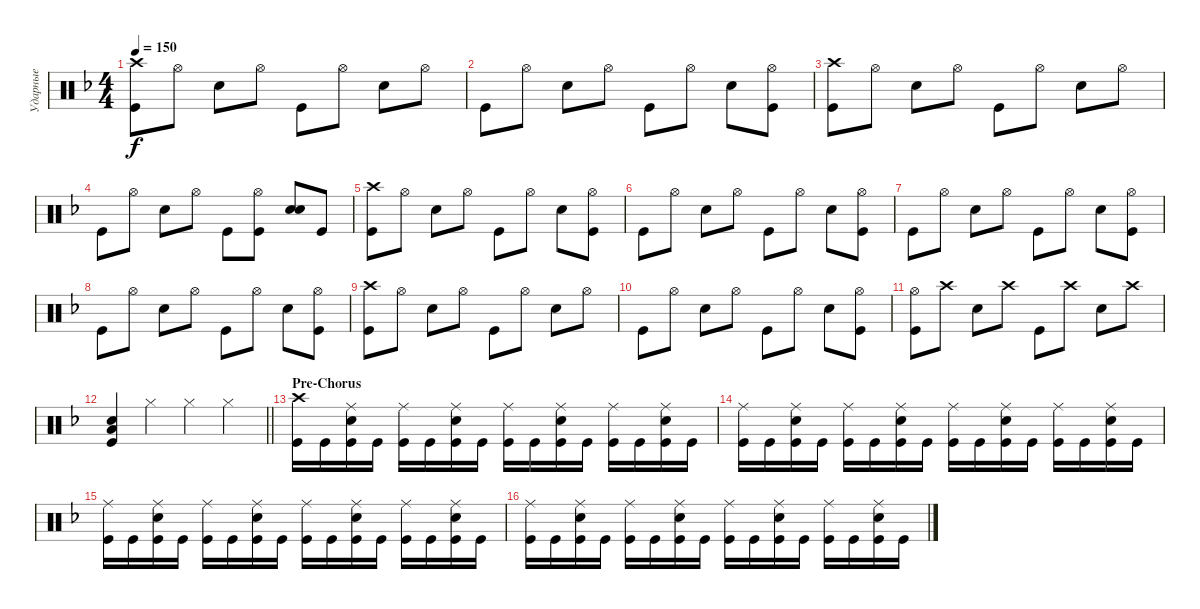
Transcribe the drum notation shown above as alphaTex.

\track ("Ударные" "Ударные") {instrument percussion}
\staff {score}
\articulation defaults
\ts (4 4)
\tempo 150
\clef neutral
\ks dminor
("Kick (hit)" "Crash high (hit)").8{dy f} "Hi-Hat (open)".8 "Snare (hit) 2".8 "Hi-Hat (open)".8 "Kick (hit)".8 "Hi-Hat (open)".8 "Snare (hit) 2".8 "Hi-Hat (open)".8 |
"Kick (hit)".8 "Hi-Hat (open)".8 "Snare (hit) 2".8 "Hi-Hat (open)".8 "Kick (hit)".8 "Hi-Hat (open)".8 "Snare (hit) 2".8 ("Kick (hit)" "Hi-Hat (open)").8 |
("Kick (hit)" "Crash high (hit)").8 "Hi-Hat (open)".8 "Snare (hit) 2".8 "Hi-Hat (open)".8 "Kick (hit)".8 "Hi-Hat (open)".8 "Snare (hit) 2".8 "Hi-Hat (open)".8 |
"Kick (hit)".8 "Hi-Hat (open)".8 "Snare (hit) 2".8 "Hi-Hat (open)".8 "Kick (hit)".8 ("Kick (hit)" "Hi-Hat (open)").8 ("Snare (hit) 2" "Snare (hit) 2").8{bd 480} "Kick (hit)".8 |
("Kick (hit)" "Crash high (hit)").8 "Hi-Hat (open)".8 "Snare (hit) 2".8 "Hi-Hat (open)".8 "Kick (hit)".8 "Hi-Hat (open)".8 "Snare (hit) 2".8 ("Kick (hit)" "Hi-Hat (open)").8 |
"Kick (hit)".8 "Hi-Hat (open)".8 "Snare (hit) 2".8 "Hi-Hat (open)".8 "Kick (hit)".8 "Hi-Hat (open)".8 "Snare (hit) 2".8 ("Kick (hit)" "Hi-Hat (open)").8 |
"Kick (hit)".8 "Hi-Hat (open)".8 "Snare (hit) 2".8 "Hi-Hat (open)".8 "Kick (hit)".8 "Hi-Hat (open)".8 "Snare (hit) 2".8 ("Kick (hit)" "Hi-Hat (open)").8 |
"Kick (hit)".8 "Hi-Hat (open)".8 "Snare (hit) 2".8 "Hi-Hat (open)".8 "Kick (hit)".8 "Hi-Hat (open)".8 "Snare (hit) 2".8 ("Kick (hit)" "Hi-Hat (open)").8 |
("Kick (hit)" "Crash high (hit)").8 "Hi-Hat (open)".8 "Snare (hit) 2".8 "Hi-Hat (open)".8 "Kick (hit)".8 "Hi-Hat (open)".8 "Snare (hit) 2".8 "Hi-Hat (open)".8 |
"Kick (hit)".8 "Hi-Hat (open)".8 "Snare (hit) 2".8 "Hi-Hat (open)".8 "Kick (hit)".8 "Hi-Hat (open)".8 "Snare (hit) 2".8 ("Kick (hit)" "Hi-Hat (open)").8 |
("Kick (hit)" "Hi-Hat (open)").8 "Crash high (hit)".8 "Snare (hit) 2".8 "Crash high (hit)".8 "Kick (hit)".8 "Crash high (hit)".8 "Snare (hit) 2".8 "Crash high (hit)".8 |
\barLineRight lightlight
("Kick (hit)" "Snare (hit) 2" "Low Floor Tom (hit)").4{bd 480} "Hi-Hat (closed)".4 "Hi-Hat (closed)".4 "Hi-Hat (closed)".4 |
\section ("" "Pre-Chorus")
("Kick (hit)" "Crash high (hit)").16 "Kick (hit)".16 ("Kick (hit)" "Snare (hit) 2" "Ride (middle)").16 "Kick (hit)".16 ("Kick (hit)" "Ride (middle)").16 "Kick (hit)".16 ("Kick (hit)" "Snare (hit) 2" "Ride (middle)").16 "Kick (hit)".16 ("Kick (hit)" "Ride (middle)").16 "Kick (hit)".16 ("Snare (hit) 2" "Kick (hit)" "Ride (middle)").16 "Kick (hit)".16 ("Kick (hit)" "Ride (middle)").16 "Kick (hit)".16 ("Kick (hit)" "Snare (hit) 2" "Ride (middle)").16 "Kick (hit)".16 |
("Kick (hit)" "Ride (middle)").16 "Kick (hit)".16 ("Kick (hit)" "Snare (hit) 2" "Ride (middle)").16 "Kick (hit)".16 ("Kick (hit)" "Ride (middle)").16 "Kick (hit)".16 ("Kick (hit)" "Snare (hit) 2" "Ride (middle)").16 "Kick (hit)".16 ("Kick (hit)" "Ride (middle)").16 "Kick (hit)".16 ("Snare (hit) 2" "Kick (hit)" "Ride (middle)").16 "Kick (hit)".16 ("Kick (hit)" "Ride (middle)").16 "Kick (hit)".16 ("Kick (hit)" "Snare (hit) 2" "Ride (middle)").16 "Kick (hit)".16 |
("Kick (hit)" "Ride (middle)").16 "Kick (hit)".16 ("Kick (hit)" "Snare (hit) 2" "Ride (middle)").16 "Kick (hit)".16 ("Kick (hit)" "Ride (middle)").16 "Kick (hit)".16 ("Kick (hit)" "Snare (hit) 2" "Ride (middle)").16 "Kick (hit)".16 ("Kick (hit)" "Ride (middle)").16 "Kick (hit)".16 ("Snare (hit) 2" "Kick (hit)" "Ride (middle)").16 "Kick (hit)".16 ("Kick (hit)" "Ride (middle)").16 "Kick (hit)".16 ("Kick (hit)" "Snare (hit) 2" "Ride (middle)").16 "Kick (hit)".16 |
("Kick (hit)" "Ride (middle)").16 "Kick (hit)".16 ("Kick (hit)" "Snare (hit) 2" "Ride (middle)").16 "Kick (hit)".16 ("Kick (hit)" "Ride (middle)").16 "Kick (hit)".16 ("Kick (hit)" "Snare (hit) 2" "Ride (middle)").16 "Kick (hit)".16 ("Kick (hit)" "Ride (middle)").16 "Kick (hit)".16 ("Snare (hit) 2" "Kick (hit)" "Ride (middle)").16 "Kick (hit)".16 ("Kick (hit)" "Ride (middle)").16 "Kick (hit)".16 ("Kick (hit)" "Snare (hit) 2" "Ride (middle)").16 "Kick (hit)".16
